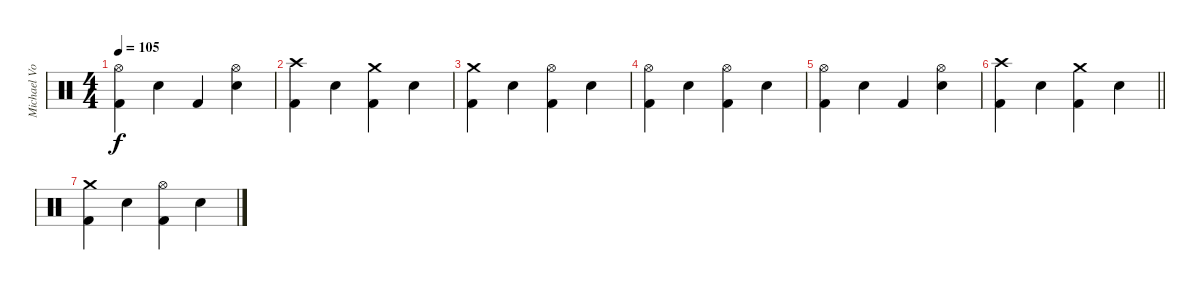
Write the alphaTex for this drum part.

\track ("Michael Von Knorring" "Michael Vo") {instrument percussion}
\staff {score}
\articulation defaults
\ts (4 4)
\tempo 105
\clef neutral
\ks c
("Hi-Hat (open)" "Kick (hit) 2").4{dy f} "Snare (hit) 2".4 "Kick (hit) 2".4 ("Hi-Hat (open)" "Snare (hit) 2").4 |
("Crash high (hit)" "Kick (hit) 2").4 "Snare (hit) 2".4 ("Crash medium (hit)" "Kick (hit) 2").4 "Snare (hit) 2".4 |
("Crash medium (hit)" "Kick (hit) 2").4 "Snare (hit) 2".4 ("Hi-Hat (open)" "Kick (hit) 2").4 "Snare (hit) 2".4 |
("Hi-Hat (open)" "Kick (hit) 2").4 "Snare (hit) 2".4 ("Hi-Hat (open)" "Kick (hit) 2").4 "Snare (hit) 2".4 |
("Hi-Hat (open)" "Kick (hit) 2").4 "Snare (hit) 2".4 "Kick (hit) 2".4 ("Hi-Hat (open)" "Snare (hit) 2").4 |
\barLineRight lightlight
("Crash high (hit)" "Kick (hit) 2").4 "Snare (hit) 2".4 ("Crash medium (hit)" "Kick (hit) 2").4 "Snare (hit) 2".4 |
("Crash medium (hit)" "Kick (hit) 2").4 "Snare (hit) 2".4 ("Hi-Hat (open)" "Kick (hit) 2").4 "Snare (hit) 2".4
